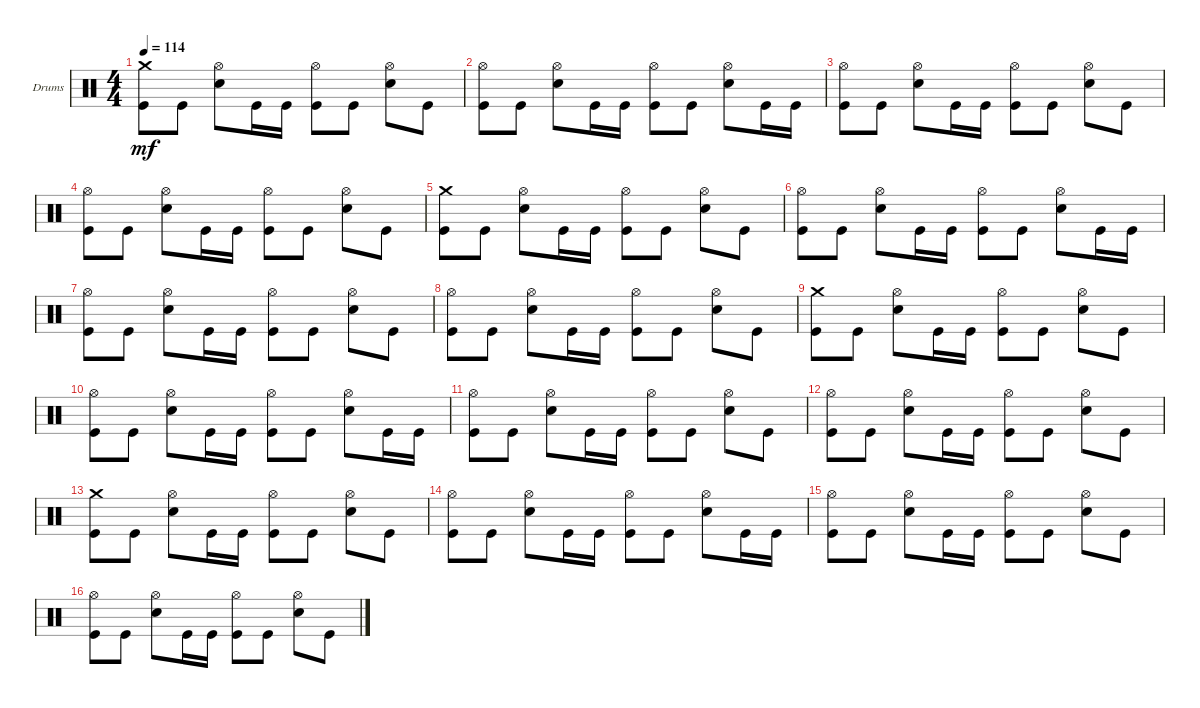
\defaultSystemsLayout 4
\bracketExtendMode groupsimilarinstruments
\firstSystemTrackNameOrientation horizontal
\otherSystemsTrackNameOrientation horizontal
\track ("Drums Inferno" "Drums") {instrument percussion}
\staff {score}
\articulation defaults
\ts (4 4)
\tempo 114
\clef neutral
\scale
0.333333
\ks c
("Kick (hit)" "Crash medium (hit)").8{dy mf} "Kick (hit)".8 ("Hi-Hat (open)" "Snare (hit) 2").8 "Kick (hit)".16 "Kick (hit)".16 ("Hi-Hat (open)" "Kick (hit)").8 "Kick (hit)".8 ("Hi-Hat (open)" "Snare (hit) 2").8 "Kick (hit)".8 |
\scale
0.333333 ("Kick (hit)" "Hi-Hat (open)").8 "Kick (hit)".8 ("Hi-Hat (open)" "Snare (hit) 2").8 "Kick (hit)".16 "Kick (hit)".16 ("Hi-Hat (open)" "Kick (hit)").8 "Kick (hit)".8 ("Hi-Hat (open)" "Snare (hit) 2").8 "Kick (hit)".16 "Kick (hit)".16 |
\scale
0.333333 ("Kick (hit)" "Hi-Hat (open)").8 "Kick (hit)".8 ("Hi-Hat (open)" "Snare (hit) 2").8 "Kick (hit)".16 "Kick (hit)".16 ("Hi-Hat (open)" "Kick (hit)").8 "Kick (hit)".8 ("Hi-Hat (open)" "Snare (hit) 2").8 "Kick (hit)".8 |
\scale
0.333333 ("Kick (hit)" "Hi-Hat (open)").8 "Kick (hit)".8 ("Hi-Hat (open)" "Snare (hit) 2").8 "Kick (hit)".16 "Kick (hit)".16 ("Hi-Hat (open)" "Kick (hit)").8 "Kick (hit)".8 ("Hi-Hat (open)" "Snare (hit) 2").8 "Kick (hit)".8 |
\scale
0.333333 ("Kick (hit)" "Crash medium (hit)").8 "Kick (hit)".8 ("Hi-Hat (open)" "Snare (hit) 2").8 "Kick (hit)".16 "Kick (hit)".16 ("Hi-Hat (open)" "Kick (hit)").8 "Kick (hit)".8 ("Hi-Hat (open)" "Snare (hit) 2").8 "Kick (hit)".8 |
\scale
0.333333 ("Kick (hit)" "Hi-Hat (open)").8 "Kick (hit)".8 ("Hi-Hat (open)" "Snare (hit) 2").8 "Kick (hit)".16 "Kick (hit)".16 ("Hi-Hat (open)" "Kick (hit)").8 "Kick (hit)".8 ("Hi-Hat (open)" "Snare (hit) 2").8 "Kick (hit)".16 "Kick (hit)".16 |
\scale
0.333333 ("Kick (hit)" "Hi-Hat (open)").8 "Kick (hit)".8 ("Hi-Hat (open)" "Snare (hit) 2").8 "Kick (hit)".16 "Kick (hit)".16 ("Hi-Hat (open)" "Kick (hit)").8 "Kick (hit)".8 ("Hi-Hat (open)" "Snare (hit) 2").8 "Kick (hit)".8 |
\scale
0.333333 ("Kick (hit)" "Hi-Hat (open)").8 "Kick (hit)".8 ("Hi-Hat (open)" "Snare (hit) 2").8 "Kick (hit)".16 "Kick (hit)".16 ("Hi-Hat (open)" "Kick (hit)").8 "Kick (hit)".8 ("Hi-Hat (open)" "Snare (hit) 2").8 "Kick (hit)".8 |
\scale
0.333333 ("Kick (hit)" "Crash medium (hit)").8 "Kick (hit)".8 ("Hi-Hat (open)" "Snare (hit) 2").8 "Kick (hit)".16 "Kick (hit)".16 ("Hi-Hat (open)" "Kick (hit)").8 "Kick (hit)".8 ("Hi-Hat (open)" "Snare (hit) 2").8 "Kick (hit)".8 |
\scale
0.333333 ("Kick (hit)" "Hi-Hat (open)").8 "Kick (hit)".8 ("Hi-Hat (open)" "Snare (hit) 2").8 "Kick (hit)".16 "Kick (hit)".16 ("Hi-Hat (open)" "Kick (hit)").8 "Kick (hit)".8 ("Hi-Hat (open)" "Snare (hit) 2").8 "Kick (hit)".16 "Kick (hit)".16 |
\scale
0.333333 ("Kick (hit)" "Hi-Hat (open)").8 "Kick (hit)".8 ("Hi-Hat (open)" "Snare (hit) 2").8 "Kick (hit)".16 "Kick (hit)".16 ("Hi-Hat (open)" "Kick (hit)").8 "Kick (hit)".8 ("Hi-Hat (open)" "Snare (hit) 2").8 "Kick (hit)".8 |
\scale
0.333333 ("Kick (hit)" "Hi-Hat (open)").8 "Kick (hit)".8 ("Hi-Hat (open)" "Snare (hit) 2").8 "Kick (hit)".16 "Kick (hit)".16 ("Hi-Hat (open)" "Kick (hit)").8 "Kick (hit)".8 ("Hi-Hat (open)" "Snare (hit) 2").8 "Kick (hit)".8 |
\scale
0.333333 ("Kick (hit)" "Crash medium (hit)").8 "Kick (hit)".8 ("Hi-Hat (open)" "Snare (hit) 2").8 "Kick (hit)".16 "Kick (hit)".16 ("Hi-Hat (open)" "Kick (hit)").8 "Kick (hit)".8 ("Hi-Hat (open)" "Snare (hit) 2").8 "Kick (hit)".8 |
\scale
0.333333 ("Kick (hit)" "Hi-Hat (open)").8 "Kick (hit)".8 ("Hi-Hat (open)" "Snare (hit) 2").8 "Kick (hit)".16 "Kick (hit)".16 ("Hi-Hat (open)" "Kick (hit)").8 "Kick (hit)".8 ("Hi-Hat (open)" "Snare (hit) 2").8 "Kick (hit)".16 "Kick (hit)".16 |
\scale
0.333333 ("Kick (hit)" "Hi-Hat (open)").8 "Kick (hit)".8 ("Hi-Hat (open)" "Snare (hit) 2").8 "Kick (hit)".16 "Kick (hit)".16 ("Hi-Hat (open)" "Kick (hit)").8 "Kick (hit)".8 ("Hi-Hat (open)" "Snare (hit) 2").8 "Kick (hit)".8 |
\scale
0.333333 ("Kick (hit)" "Hi-Hat (open)").8 "Kick (hit)".8 ("Hi-Hat (open)" "Snare (hit) 2").8 "Kick (hit)".16 "Kick (hit)".16 ("Hi-Hat (open)" "Kick (hit)").8 "Kick (hit)".8 ("Hi-Hat (open)" "Snare (hit) 2").8 "Kick (hit)".8
